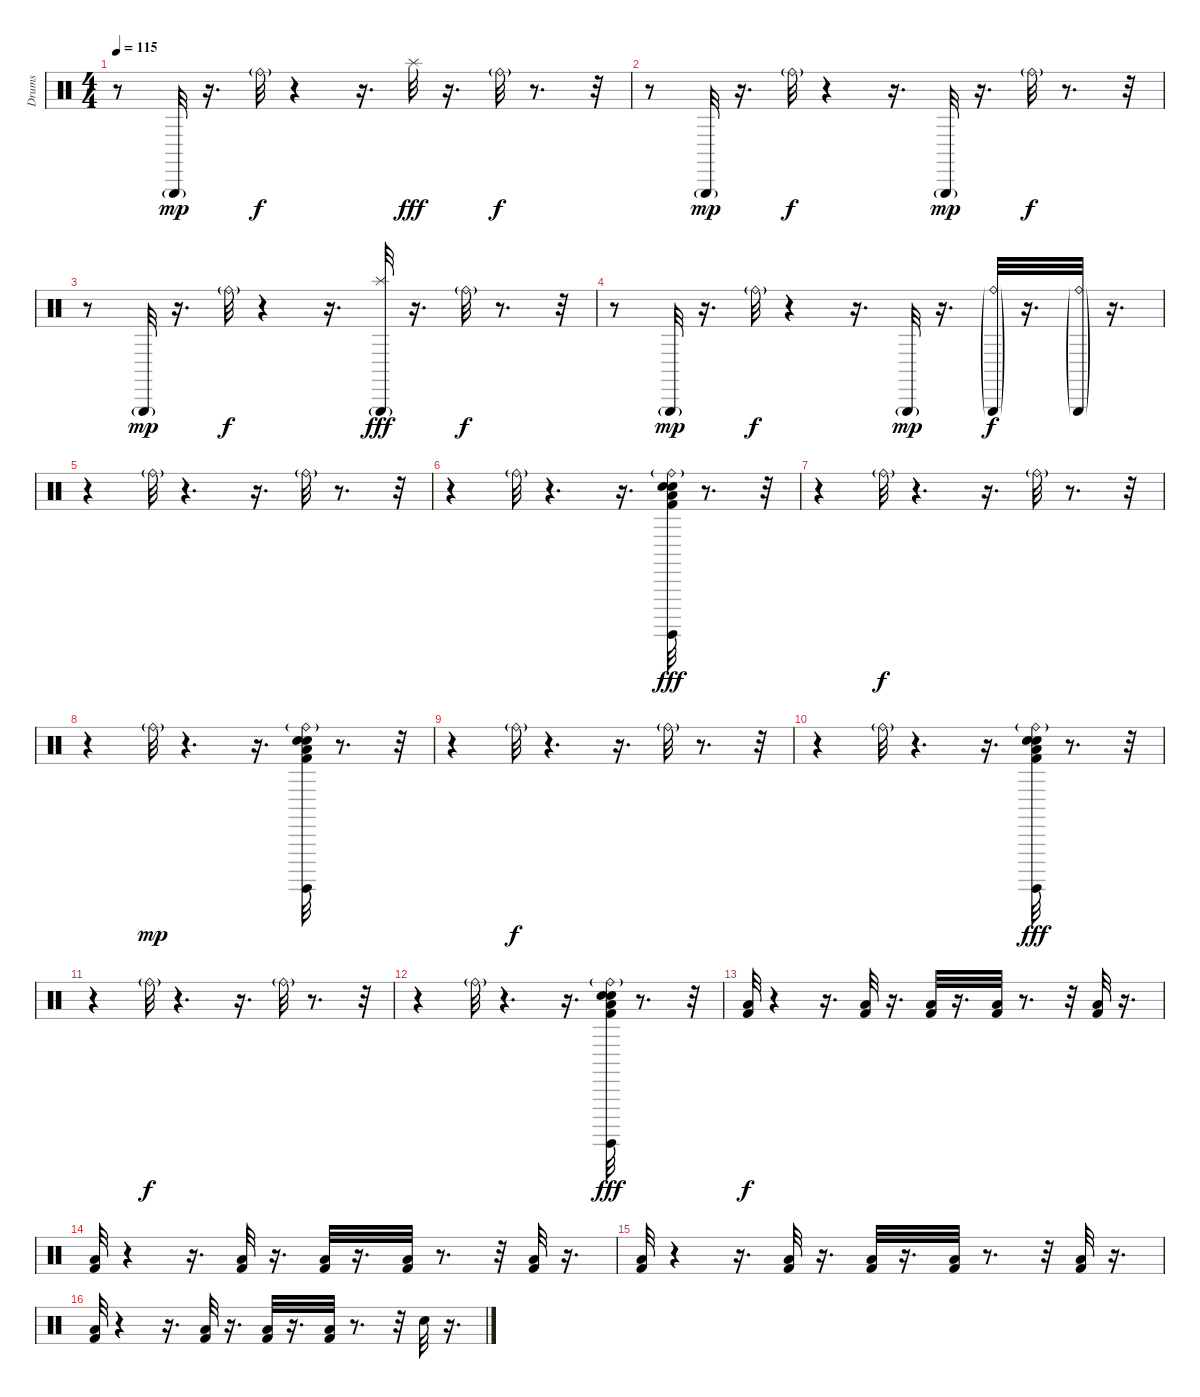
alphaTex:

\track ("Drums" "Drums") {instrument percussion}
\staff {score}
\articulation defaults
\ts (4 4)
\tempo 115
\clef neutral
\ks c
r.8{dy f} "Triangle (hit)"{g}.32{dy mp} r.16{d} "Ride (bell)"{g}.32{dy f} r.4 r.16{d} "Splash (hit)".32{dy fff} r.16{d} "Ride (bell)"{g}.32{dy f} r.8{d} r.32 |
r.8 "Triangle (hit)"{g}.32{dy mp} r.16{d} "Ride (bell)"{g}.32{dy f} r.4 r.16{d} "Triangle (hit)"{g}.32{dy mp} r.16{d} "Ride (bell)"{g}.32{dy f} r.8{d} r.32 |
r.8 "Triangle (hit)"{g}.32{dy mp} r.16{d} "Ride (bell)"{g}.32{dy f} r.4 r.16{d} ("Triangle (hit)"{g} "Splash (hit)").32{dy fff} r.16{d} "Ride (bell)"{g}.32{dy f} r.8{d} r.32 |
r.8 "Triangle (hit)"{g}.32{dy mp} r.16{d} "Ride (bell)"{g}.32{dy f} r.4 r.16{d} "Triangle (hit)"{g}.32{dy mp} r.16{d} ("Ride (bell)"{g} "Triangle (hit)"{g}).32{dy f} r.16{d} ("Ride (bell)"{g} "Triangle (hit)"{g}).32 r.16{d} |
r.4 "Ride (bell)"{g}.32 r.4{d} r.16{d} "Ride (bell)"{g}.32 r.8{d} r.32 |
r.4 "Ride (bell)"{g}.32 r.4{d} r.16{d} ("Kick (hit) 2" "Low Floor Tom (hit)" "Surdo (hit)" "Ride (bell)"{g} "Electric Snare (hit)" "Snare (hit) 2").32{dy fff} r.8{d} r.32 |
r.4 "Ride (bell)"{g}.32{dy f} r.4{d} r.16{d} "Ride (bell)"{g}.32 r.8{d} r.32 |
r.4 "Ride (bell)"{g}.32{dy mp} r.4{d} r.16{d} ("Kick (hit) 2" "Low Floor Tom (hit)" "Ride (bell)"{g} "Surdo (hit)" "Electric Snare (hit)" "Snare (hit) 2").32 r.8{d} r.32 |
r.4 "Ride (bell)"{g}.32{dy f} r.4{d} r.16{d} "Ride (bell)"{g}.32 r.8{d} r.32 |
r.4 "Ride (bell)"{g}.32 r.4{d} r.16{d} ("Kick (hit) 2" "Low Floor Tom (hit)" "Ride (bell)"{g} "Snare (hit) 2" "Electric Snare (hit)" "Surdo (hit)").32{dy fff} r.8{d} r.32 |
r.4 "Ride (bell)"{g}.32{dy f} r.4{d} r.16{d} "Ride (bell)"{g}.32 r.8{d} r.32 |
r.4 "Ride (bell)"{g}.32 r.4{d} r.16{d} ("Low Floor Tom (hit)" "Kick (hit) 2" "Ride (bell)"{g} "Snare (hit) 2" "Electric Snare (hit)" "Surdo (hit)").32{dy fff} r.8{d} r.32 |
("Low Floor Tom (hit)" "Kick (hit) 2").32{dy f} r.4 r.16{d} ("Kick (hit) 2" "Low Floor Tom (hit)").32 r.16{d} ("Kick (hit) 2" "Low Floor Tom (hit)").32 r.16{d} ("Low Floor Tom (hit)" "Kick (hit) 2").32 r.8{d} r.32 ("Low Floor Tom (hit)" "Kick (hit) 2").32 r.16{d} |
("Low Floor Tom (hit)" "Kick (hit) 2").32 r.4 r.16{d} ("Kick (hit) 2" "Low Floor Tom (hit)").32 r.16{d} ("Kick (hit) 2" "Low Floor Tom (hit)").32 r.16{d} ("Low Floor Tom (hit)" "Kick (hit) 2").32 r.8{d} r.32 ("Low Floor Tom (hit)" "Kick (hit) 2").32 r.16{d} |
("Low Floor Tom (hit)" "Kick (hit) 2").32 r.4 r.16{d} ("Kick (hit) 2" "Low Floor Tom (hit)").32 r.16{d} ("Kick (hit) 2" "Low Floor Tom (hit)").32 r.16{d} ("Low Floor Tom (hit)" "Kick (hit) 2").32 r.8{d} r.32 ("Low Floor Tom (hit)" "Kick (hit) 2").32 r.16{d} |
("Low Floor Tom (hit)" "Kick (hit) 2").32 r.4 r.16{d} ("Kick (hit) 2" "Low Floor Tom (hit)").32 r.16{d} ("Kick (hit) 2" "Low Floor Tom (hit)").32 r.16{d} ("Low Floor Tom (hit)" "Kick (hit) 2").32 r.8{d} r.32 "Snare (hit) 2".32 r.16{d}
